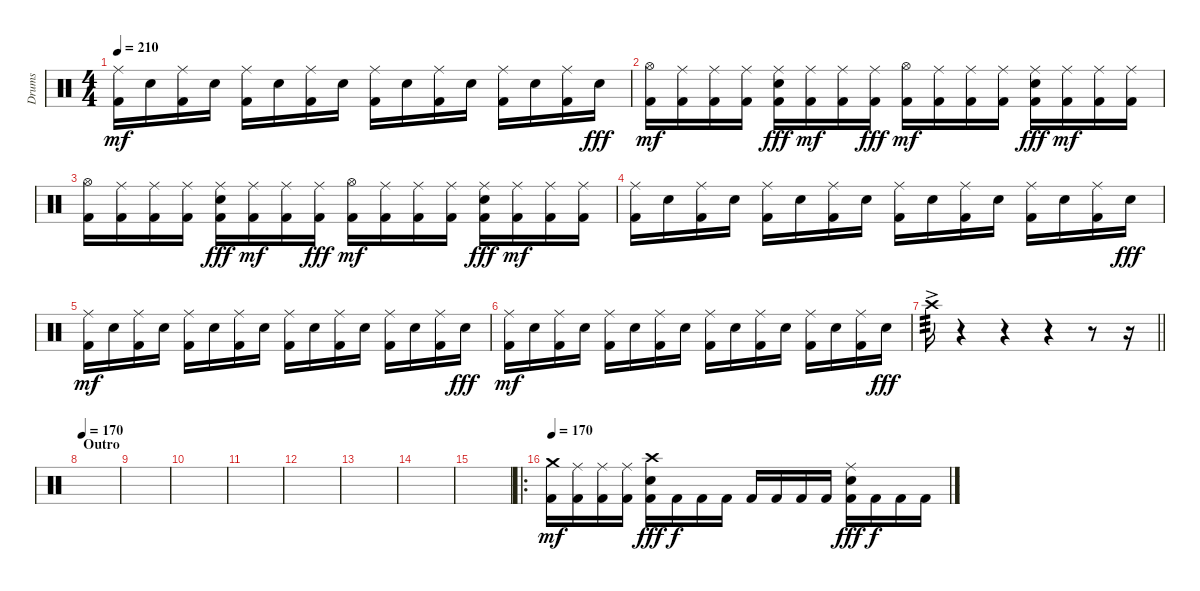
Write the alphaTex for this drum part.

\track ("Drums" "Drums") {instrument percussion}
\staff {score}
\articulation defaults
\ts (4 4)
\tempo 210
\clef neutral
\ks c
("Ride (middle)" "Kick (hit) 2").16{dy mf} "Snare (hit) 2".16 ("Ride (middle)" "Kick (hit) 2").16 "Snare (hit) 2".16 ("Ride (middle)" "Kick (hit) 2").16 "Snare (hit) 2".16 ("Ride (middle)" "Kick (hit) 2").16 "Snare (hit) 2".16 ("Ride (middle)" "Kick (hit) 2").16 "Snare (hit) 2".16 ("Ride (middle)" "Kick (hit) 2").16 "Snare (hit) 2".16 ("Ride (middle)" "Kick (hit) 2").16 "Snare (hit) 2".16 ("Ride (middle)" "Kick (hit) 2").16 "Snare (hit) 2".16{dy fff} |
("Hi-Hat (open)" "Kick (hit) 2").16{dy mf} ("Ride (middle)" "Kick (hit) 2").16 ("Ride (middle)" "Kick (hit) 2").16 ("Ride (middle)" "Kick (hit) 2").16 ("Ride (middle)" "Snare (hit) 2" "Kick (hit) 2").16{dy fff} ("Ride (middle)" "Kick (hit) 2").16{dy mf} ("Ride (middle)" "Kick (hit) 2").16 ("Ride (middle)" "Kick (hit) 2").16{dy fff} ("Hi-Hat (open)" "Kick (hit) 2").16{dy mf} ("Ride (middle)" "Kick (hit) 2").16 ("Ride (middle)" "Kick (hit) 2").16 ("Ride (middle)" "Kick (hit) 2").16 ("Ride (middle)" "Snare (hit) 2" "Kick (hit) 2").16{dy fff} ("Ride (middle)" "Kick (hit) 2").16{dy mf} ("Ride (middle)" "Kick (hit) 2").16 ("Ride (middle)" "Kick (hit) 2").16 |
("Hi-Hat (open)" "Kick (hit) 2").16 ("Ride (middle)" "Kick (hit) 2").16 ("Ride (middle)" "Kick (hit) 2").16 ("Ride (middle)" "Kick (hit) 2").16 ("Ride (middle)" "Snare (hit) 2" "Kick (hit) 2").16{dy fff} ("Ride (middle)" "Kick (hit) 2").16{dy mf} ("Ride (middle)" "Kick (hit) 2").16 ("Ride (middle)" "Kick (hit) 2").16{dy fff} ("Hi-Hat (open)" "Kick (hit) 2").16{dy mf} ("Ride (middle)" "Kick (hit) 2").16 ("Ride (middle)" "Kick (hit) 2").16 ("Ride (middle)" "Kick (hit) 2").16 ("Ride (middle)" "Snare (hit) 2" "Kick (hit) 2").16{dy fff} ("Ride (middle)" "Kick (hit) 2").16{dy mf} ("Ride (middle)" "Kick (hit) 2").16 ("Ride (middle)" "Kick (hit) 2").16 |
("Ride (middle)" "Kick (hit) 2").16 "Snare (hit) 2".16 ("Ride (middle)" "Kick (hit) 2").16 "Snare (hit) 2".16 ("Ride (middle)" "Kick (hit) 2").16 "Snare (hit) 2".16 ("Ride (middle)" "Kick (hit) 2").16 "Snare (hit) 2".16 ("Ride (middle)" "Kick (hit) 2").16 "Snare (hit) 2".16 ("Ride (middle)" "Kick (hit) 2").16 "Snare (hit) 2".16 ("Ride (middle)" "Kick (hit) 2").16 "Snare (hit) 2".16 ("Ride (middle)" "Kick (hit) 2").16 "Snare (hit) 2".16{dy fff} |
("Ride (middle)" "Kick (hit) 2").16{dy mf} "Snare (hit) 2".16 ("Ride (middle)" "Kick (hit) 2").16 "Snare (hit) 2".16 ("Ride (middle)" "Kick (hit) 2").16 "Snare (hit) 2".16 ("Ride (middle)" "Kick (hit) 2").16 "Snare (hit) 2".16 ("Ride (middle)" "Kick (hit) 2").16 "Snare (hit) 2".16 ("Ride (middle)" "Kick (hit) 2").16 "Snare (hit) 2".16 ("Ride (middle)" "Kick (hit) 2").16 "Snare (hit) 2".16 ("Ride (middle)" "Kick (hit) 2").16 "Snare (hit) 2".16{dy fff} |
("Ride (middle)" "Kick (hit) 2").16{dy mf} "Snare (hit) 2".16 ("Ride (middle)" "Kick (hit) 2").16 "Snare (hit) 2".16 ("Ride (middle)" "Kick (hit) 2").16 "Snare (hit) 2".16 ("Ride (middle)" "Kick (hit) 2").16 "Snare (hit) 2".16 ("Ride (middle)" "Kick (hit) 2").16 "Snare (hit) 2".16 ("Ride (middle)" "Kick (hit) 2").16 "Snare (hit) 2".16 ("Ride (middle)" "Kick (hit) 2").16 "Snare (hit) 2".16 ("Ride (middle)" "Kick (hit) 2").16 "Snare (hit) 2".16{dy fff} |
\barLineRight lightlight "Crash high (hit)"{ac}.16{tp 3}
r.4 r.4 r.4 r.8 r.16 |
\section ("" "Outro")
\tempo 170
|
|
|
|
|
|
|
|
\ro
\tempo 170
("Crash medium (hit)" "Kick (hit) 2").16{dy mf} ("Ride (middle)" "Kick (hit) 2").16 ("Ride (middle)" "Kick (hit) 2").16 ("Ride (middle)" "Kick (hit) 2").16 ("Crash high (hit)" "Snare (hit) 2" "Kick (hit) 2").16{dy fff} "Kick (hit) 2".16{dy f} "Kick (hit) 2".16 "Kick (hit) 2".16 "Kick (hit) 2".16 "Kick (hit) 2".16 "Kick (hit) 2".16 "Kick (hit) 2".16 ("Ride (middle)" "Snare (hit) 2" "Kick (hit) 2").16{dy fff} "Kick (hit) 2".16{dy f} "Kick (hit) 2".16 "Kick (hit) 2".16
